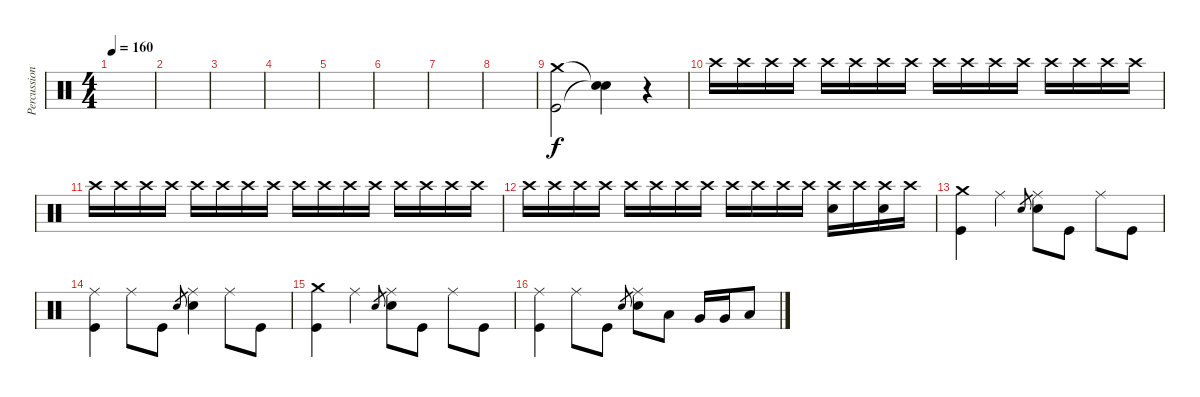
\track ("Percussion" "Percussion") {instrument percussion}
\staff {score}
\articulation defaults
\ts (4 4)
\tempo 160
\clef neutral
\ks c
|
|
|
|
|
|
|
|
("Crash medium (hit)" "Kick (hit)").2 ("Snare (hit)"{t} "Snare (hit)"{t}).4 r.4{volume 0} |
"Crash high (hit)".16{volume 16} "Crash high (hit)".16 "Crash high (hit)".16 "Crash high (hit)".16 "Crash high (hit)".16 "Crash high (hit)".16 "Crash high (hit)".16 "Crash high (hit)".16 "Crash high (hit)".16 "Crash high (hit)".16 "Crash high (hit)".16 "Crash high (hit)".16 "Crash high (hit)".16 "Crash high (hit)".16 "Crash high (hit)".16 "Crash high (hit)".16 |
"Crash high (hit)".16 "Crash high (hit)".16 "Crash high (hit)".16 "Crash high (hit)".16 "Crash high (hit)".16 "Crash high (hit)".16 "Crash high (hit)".16 "Crash high (hit)".16 "Crash high (hit)".16 "Crash high (hit)".16 "Crash high (hit)".16 "Crash high (hit)".16 "Crash high (hit)".16 "Crash high (hit)".16 "Crash high (hit)".16 "Crash high (hit)".16 |
"Crash high (hit)".16 "Crash high (hit)".16 "Crash high (hit)".16 "Crash high (hit)".16 "Crash high (hit)".16 "Crash high (hit)".16 "Crash high (hit)".16 "Crash high (hit)".16 "Crash high (hit)".16 "Crash high (hit)".16 "Crash high (hit)".16 "Crash high (hit)".16 ("Electric Snare (hit)" "Crash high (hit)").16 "Crash high (hit)".16 ("Electric Snare (hit)" "Crash high (hit)").16 "Crash high (hit)".16 |
("Crash medium (hit)" "Kick (hit)").4 "Ride (middle)".4 "Electric Snare (hit)".8{gr} ("Ride (middle)" "Electric Snare (hit)").8 "Kick (hit)".8 "Ride (middle)".8 "Kick (hit)".8 |
("Ride (middle)" "Kick (hit)").4 "Ride (middle)".8 "Kick (hit)".8 "Electric Snare (hit)".8{gr} ("Ride (middle)" "Electric Snare (hit)").4 "Ride (middle)".8 "Kick (hit)".8 |
("Crash medium (hit)" "Kick (hit)").4 "Ride (middle)".4 "Electric Snare (hit)".8{gr} ("Ride (middle)" "Electric Snare (hit)").8 "Kick (hit)".8 "Ride (middle)".8 "Kick (hit)".8 |
("Ride (middle)" "Kick (hit)").4 "Ride (middle)".8 "Kick (hit)".8 "Electric Snare (hit)".8{gr} ("Ride (middle)" "Electric Snare (hit)").8 "Low Tom (hit)".8 "Very Low Tom (hit)".16 "Very Low Tom (hit)".16 "Low Floor Tom (hit)".8
